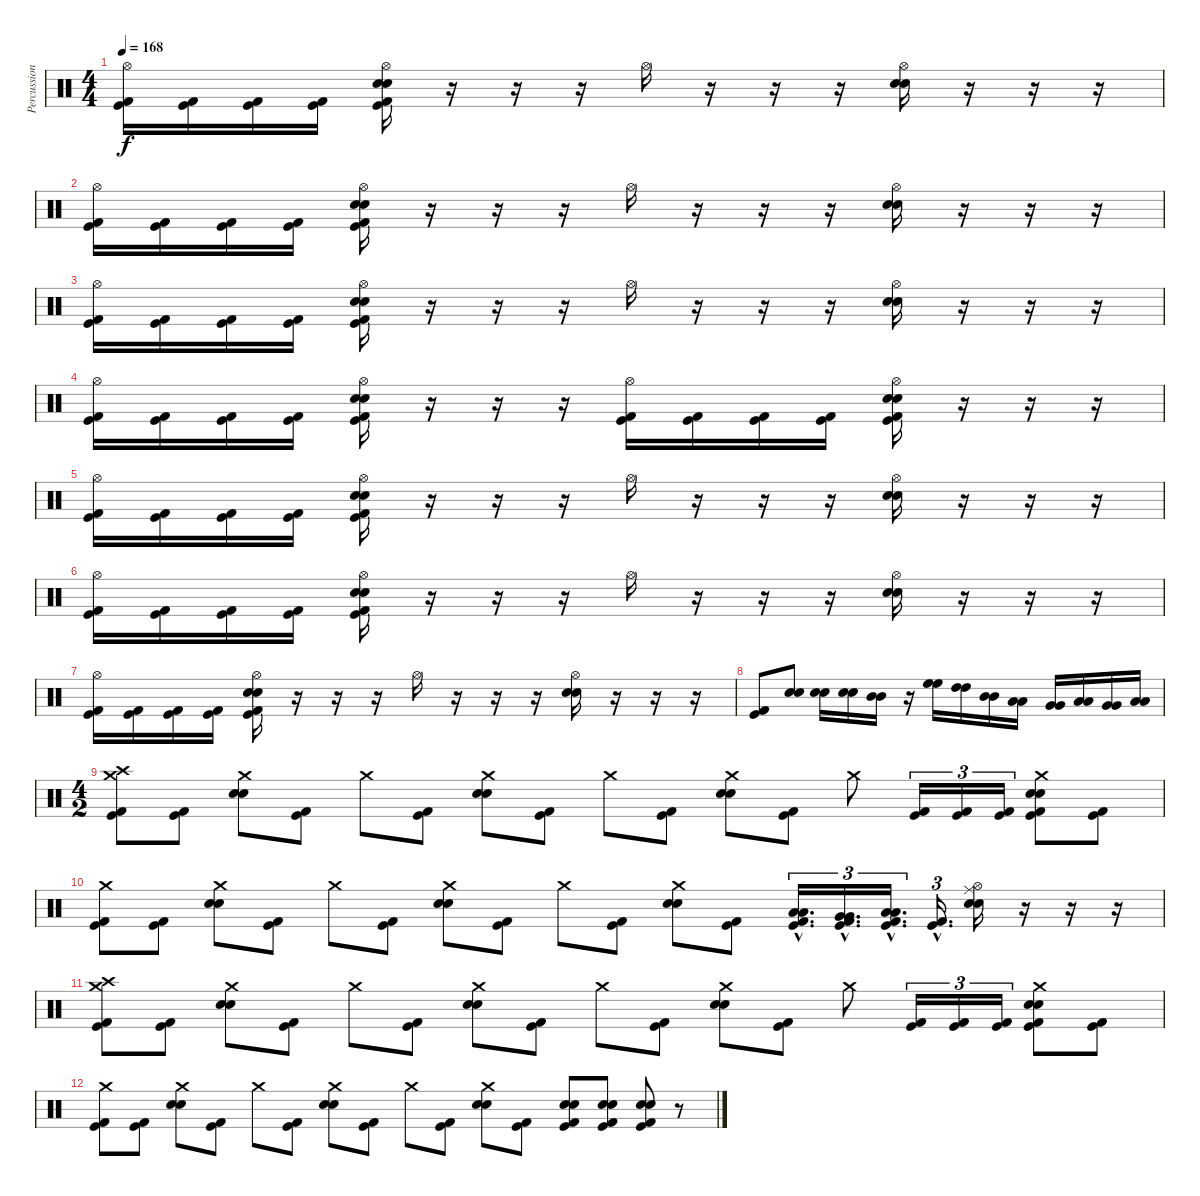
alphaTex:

\track ("Percussion" "Percussion") {instrument percussion}
\staff {score}
\articulation defaults
\ts (4 4)
\tempo 168
\clef neutral
\ks c
("Hi-Hat (open)" "Kick (hit) 2" "Kick (hit)").16{dy f} ("Kick (hit) 2" "Kick (hit)").16 ("Kick (hit) 2" "Kick (hit)").16 ("Kick (hit) 2" "Kick (hit)").16 ("Hi-Hat (open)" "Electric Snare (hit)" "Snare (hit) 2" "Kick (hit) 2" "Kick (hit)").16 r.16 r.16 r.16 "Hi-Hat (open)".16 r.16 r.16 r.16 ("Hi-Hat (open)" "Electric Snare (hit)" "Snare (hit) 2").16 r.16 r.16 r.16 |
("Hi-Hat (open)" "Kick (hit) 2" "Kick (hit)").16 ("Kick (hit) 2" "Kick (hit)").16 ("Kick (hit) 2" "Kick (hit)").16 ("Kick (hit) 2" "Kick (hit)").16 ("Hi-Hat (open)" "Electric Snare (hit)" "Snare (hit) 2" "Kick (hit) 2" "Kick (hit)").16 r.16 r.16 r.16 "Hi-Hat (open)".16 r.16 r.16 r.16 ("Hi-Hat (open)" "Electric Snare (hit)" "Snare (hit) 2").16 r.16 r.16 r.16 |
("Hi-Hat (open)" "Kick (hit) 2" "Kick (hit)").16 ("Kick (hit) 2" "Kick (hit)").16 ("Kick (hit) 2" "Kick (hit)").16 ("Kick (hit) 2" "Kick (hit)").16 ("Hi-Hat (open)" "Electric Snare (hit)" "Snare (hit) 2" "Kick (hit) 2" "Kick (hit)").16 r.16 r.16 r.16 "Hi-Hat (open)".16 r.16 r.16 r.16 ("Hi-Hat (open)" "Electric Snare (hit)" "Snare (hit) 2").16 r.16 r.16 r.16 |
("Hi-Hat (open)" "Kick (hit) 2" "Kick (hit)").16 ("Kick (hit) 2" "Kick (hit)").16 ("Kick (hit) 2" "Kick (hit)").16 ("Kick (hit) 2" "Kick (hit)").16 ("Hi-Hat (open)" "Electric Snare (hit)" "Snare (hit) 2" "Kick (hit) 2" "Kick (hit)").16 r.16 r.16 r.16 ("Hi-Hat (open)" "Kick (hit) 2" "Kick (hit)").16 ("Kick (hit) 2" "Kick (hit)").16 ("Kick (hit) 2" "Kick (hit)").16 ("Kick (hit) 2" "Kick (hit)").16 ("Hi-Hat (open)" "Electric Snare (hit)" "Snare (hit) 2" "Kick (hit) 2" "Kick (hit)").16 r.16 r.16 r.16 |
("Hi-Hat (open)" "Kick (hit) 2" "Kick (hit)").16 ("Kick (hit) 2" "Kick (hit)").16 ("Kick (hit) 2" "Kick (hit)").16 ("Kick (hit) 2" "Kick (hit)").16 ("Hi-Hat (open)" "Electric Snare (hit)" "Snare (hit) 2" "Kick (hit) 2" "Kick (hit)").16 r.16 r.16 r.16 "Hi-Hat (open)".16 r.16 r.16 r.16 ("Hi-Hat (open)" "Electric Snare (hit)" "Snare (hit) 2").16 r.16 r.16 r.16 |
("Hi-Hat (open)" "Kick (hit) 2" "Kick (hit)").16 ("Kick (hit) 2" "Kick (hit)").16 ("Kick (hit) 2" "Kick (hit)").16 ("Kick (hit) 2" "Kick (hit)").16 ("Hi-Hat (open)" "Electric Snare (hit)" "Snare (hit) 2" "Kick (hit) 2" "Kick (hit)").16 r.16 r.16 r.16 "Hi-Hat (open)".16 r.16 r.16 r.16 ("Hi-Hat (open)" "Electric Snare (hit)" "Snare (hit) 2").16 r.16 r.16 r.16 |
("Hi-Hat (open)" "Kick (hit) 2" "Kick (hit)").16 ("Kick (hit) 2" "Kick (hit)").16 ("Kick (hit) 2" "Kick (hit)").16 ("Kick (hit) 2" "Kick (hit)").16 ("Hi-Hat (open)" "Electric Snare (hit)" "Snare (hit) 2" "Kick (hit) 2" "Kick (hit)").16 r.16 r.16 r.16 "Hi-Hat (open)".16 r.16 r.16 r.16 ("Hi-Hat (open)" "Electric Snare (hit)" "Snare (hit) 2").16 r.16 r.16 r.16 |
("Kick (hit) 2" "Kick (hit)").8 ("Electric Snare (hit)" "Snare (hit) 2").8 ("Electric Snare (hit)" "Snare (hit) 2").16 ("Electric Snare (hit)" "Snare (hit) 2").16 ("Mid Tom (hit)" "Mid Tom (hit)").16 r.16 ("High Floor Tom (hit)" "High Floor Tom (hit)").16 ("High Tom (hit)" "High Tom (hit)").16 ("Mid Tom (hit)" "Mid Tom (hit)").16 ("Low Tom (hit)" "Low Tom (hit)").16 ("Very Low Tom (hit)" "Very Low Tom (hit)").16 ("Low Tom (hit)" "Low Tom (hit)").16 ("Very Low Tom (hit)" "Very Low Tom (hit)").16 ("Low Floor Tom (hit)" "Low Floor Tom (hit)").16 |
\ts (4 2)
("Crash medium (hit)" "Crash high (hit)" "Kick (hit) 2" "Kick (hit)").8 ("Kick (hit) 2" "Kick (hit)").8 ("Crash medium (hit)" "Electric Snare (hit)" "Snare (hit) 2").8 ("Kick (hit) 2" "Kick (hit)").8 "Crash medium (hit)".8 ("Kick (hit) 2" "Kick (hit)").8 ("Crash medium (hit)" "Electric Snare (hit)" "Snare (hit) 2").8 ("Kick (hit) 2" "Kick (hit)").8 "Crash medium (hit)".8 ("Kick (hit) 2" "Kick (hit)").8 ("Crash medium (hit)" "Electric Snare (hit)" "Snare (hit) 2").8 ("Kick (hit) 2" "Kick (hit)").8 "Crash medium (hit)".8 ("Kick (hit) 2" "Kick (hit)").16{tu (3 2)} ("Kick (hit) 2" "Kick (hit)").16{tu (3 2)} ("Kick (hit) 2" "Kick (hit)").16{tu (3 2)} ("Crash medium (hit)" "Electric Snare (hit)" "Snare (hit) 2" "Kick (hit) 2" "Kick (hit)").8 ("Kick (hit) 2" "Kick (hit)").8 |
("Crash medium (hit)" "Kick (hit) 2" "Kick (hit)").8 ("Kick (hit) 2" "Kick (hit)").8 ("Crash medium (hit)" "Electric Snare (hit)" "Snare (hit) 2").8 ("Kick (hit) 2" "Kick (hit)").8 "Crash medium (hit)".8 ("Kick (hit) 2" "Kick (hit)").8 ("Crash medium (hit)" "Electric Snare (hit)" "Snare (hit) 2").8 ("Kick (hit) 2" "Kick (hit)").8 "Crash medium (hit)".8 ("Kick (hit) 2" "Kick (hit)").8 ("Crash medium (hit)" "Electric Snare (hit)" "Snare (hit) 2").8 ("Kick (hit) 2" "Kick (hit)").8 ("Low Tom (hit)"{hac} "Low Tom (hit)"{hac} "Kick (hit) 2"{hac} "Kick (hit)"{hac}).16{d tu (3 2)} ("Very Low Tom (hit)"{hac} "Very Low Tom (hit)"{hac} "Kick (hit) 2"{hac} "Kick (hit)"{hac}).16{d tu (3 2)} ("Low Floor Tom (hit)"{hac} "Low Floor Tom (hit)"{hac} "Kick (hit) 2"{hac} "Kick (hit)"{hac}).16{d tu (3 2)} ("Kick (hit) 2"{hac} "Kick (hit)"{hac}).16{d tu (3 2)} ("Hi-Hat (open)" "Ride (middle)" "Electric Snare (hit)" "Snare (hit) 2").16 r.16 r.16 r.16 |
("Crash high (hit)" "Crash medium (hit)" "Kick (hit) 2" "Kick (hit)").8 ("Kick (hit) 2" "Kick (hit)").8 ("Crash medium (hit)" "Electric Snare (hit)" "Snare (hit) 2").8 ("Kick (hit) 2" "Kick (hit)").8 "Crash medium (hit)".8 ("Kick (hit) 2" "Kick (hit)").8 ("Crash medium (hit)" "Electric Snare (hit)" "Snare (hit) 2").8 ("Kick (hit) 2" "Kick (hit)").8 "Crash medium (hit)".8 ("Kick (hit) 2" "Kick (hit)").8 ("Crash medium (hit)" "Electric Snare (hit)" "Snare (hit) 2").8 ("Kick (hit) 2" "Kick (hit)").8 "Crash medium (hit)".8 ("Kick (hit) 2" "Kick (hit)").16{tu (3 2)} ("Kick (hit) 2" "Kick (hit)").16{tu (3 2)} ("Kick (hit) 2" "Kick (hit)").16{tu (3 2)} ("Crash medium (hit)" "Electric Snare (hit)" "Snare (hit) 2" "Kick (hit) 2" "Kick (hit)").8 ("Kick (hit) 2" "Kick (hit)").8 |
("Crash medium (hit)" "Kick (hit) 2" "Kick (hit)").8 ("Kick (hit) 2" "Kick (hit)").8 ("Crash medium (hit)" "Electric Snare (hit)" "Snare (hit) 2").8 ("Kick (hit) 2" "Kick (hit)").8 "Crash medium (hit)".8 ("Kick (hit) 2" "Kick (hit)").8 ("Crash medium (hit)" "Electric Snare (hit)" "Snare (hit) 2").8 ("Kick (hit) 2" "Kick (hit)").8 "Crash medium (hit)".8 ("Kick (hit) 2" "Kick (hit)").8 ("Crash medium (hit)" "Electric Snare (hit)" "Snare (hit) 2").8 ("Kick (hit) 2" "Kick (hit)").8 ("Electric Snare (hit)" "Snare (hit) 2" "Kick (hit) 2" "Kick (hit)").8 ("Electric Snare (hit)" "Snare (hit) 2" "Kick (hit) 2" "Kick (hit)").8 ("Electric Snare (hit)" "Snare (hit) 2" "Kick (hit) 2" "Kick (hit)").8 r.8
